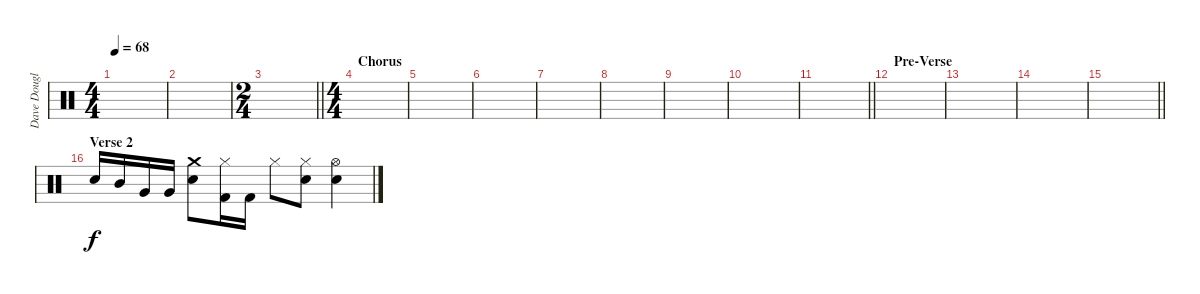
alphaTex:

\track ("Dave Douglas - Drums" "Dave Dougl") {instrument percussion}
\staff {score}
\articulation defaults
\ts (4 4)
\tempo 68
\clef neutral
\ks c
|
|
\ts (2 4)
\barLineRight lightlight
|
\ts (4 4)
\section ("" "Chorus")
|
|
|
|
|
|
|
\barLineRight lightlight
|
\section ("" "Pre-Verse")
|
|
|
\barLineRight lightlight
|
\section ("" "Verse 2")
"Snare (hit) 2".16 "Mid Tom (hit)".16 "Very Low Tom (hit)".16 "Very Low Tom (hit)".16 ("Crash medium (hit)" "Snare (hit) 2").8 ("Hi-Hat (closed)" "Kick (hit) 2").16 "Kick (hit) 2".16 "Hi-Hat (closed)".8 ("Hi-Hat (closed)" "Snare (hit) 2").8 ("Hi-Hat (open)" "Snare (hit) 2").4
